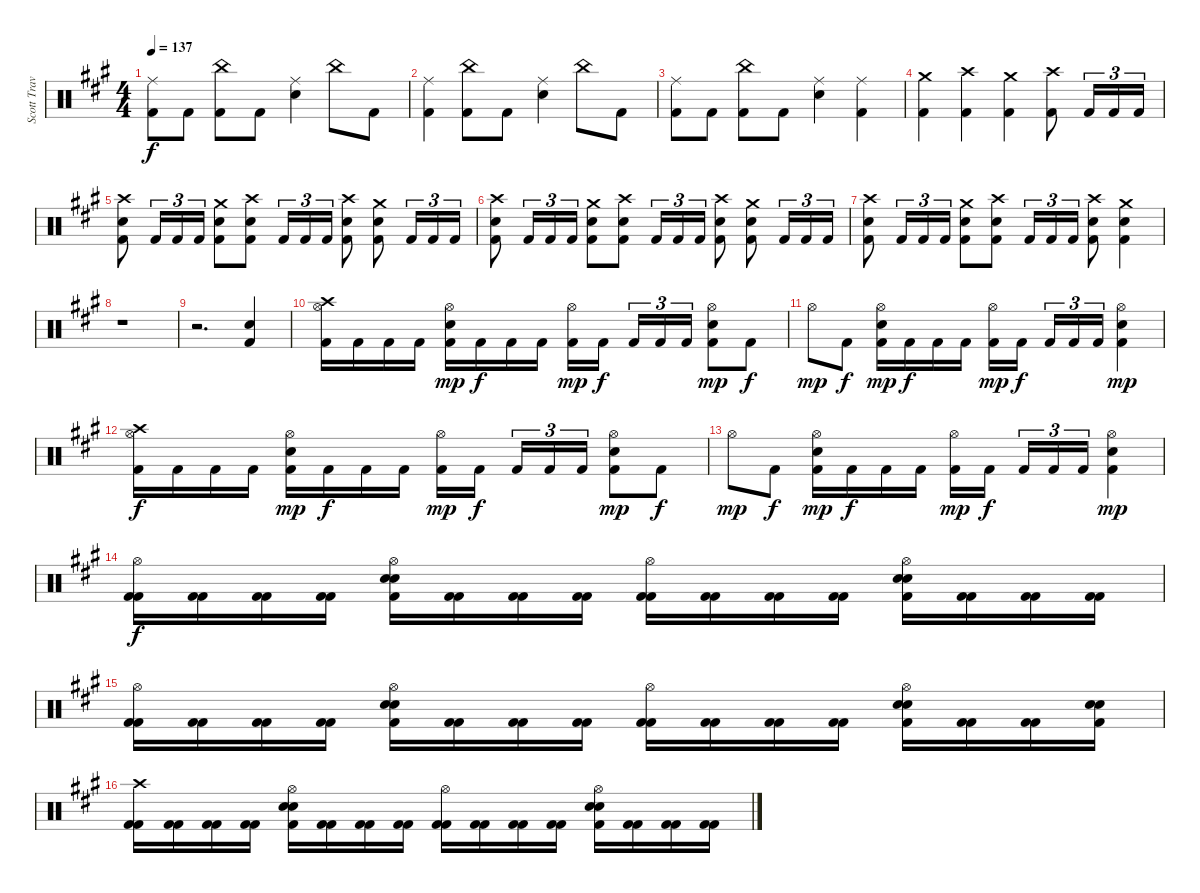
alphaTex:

\track ("Scott Travis" "Scott Trav") {instrument percussion}
\staff {score}
\articulation defaults
\ts (4 4)
\tempo 137
\clef neutral
\ks f#minor
("Ride (middle)" "Kick (hit) 2").8{dy f} "Kick (hit) 2".8 ("China (hit)" "Kick (hit) 2").8 "Kick (hit) 2".8 ("Ride (middle)" "Snare (hit) 2").4 "China (hit)".8 "Kick (hit) 2".8 |
("Ride (middle)" "Kick (hit) 2").4 ("China (hit)" "Kick (hit) 2").8 "Kick (hit) 2".8 ("Ride (middle)" "Snare (hit) 2").4 "China (hit)".8 "Kick (hit) 2".8 |
("Ride (middle)" "Kick (hit) 2").8 "Kick (hit) 2".8 ("China (hit)" "Kick (hit) 2").8 "Kick (hit) 2".8 ("Ride (middle)" "Snare (hit) 2").4 ("Ride (middle)" "Kick (hit) 2").4 |
("Crash medium (hit)" "Kick (hit) 2").4 ("Crash high (hit)" "Kick (hit) 2").4 ("Crash medium (hit)" "Kick (hit) 2").4 ("Crash high (hit)" "Kick (hit) 2").8 "Kick (hit) 2".16{tu (3 2)} "Kick (hit) 2".16{tu (3 2)} "Kick (hit) 2".16{tu (3 2)} |
("Crash high (hit)" "Snare (hit) 2" "Kick (hit) 2").8 "Kick (hit) 2".16{tu (3 2)} "Kick (hit) 2".16{tu (3 2)} "Kick (hit) 2".16{tu (3 2)} ("Crash medium (hit)" "Snare (hit) 2" "Kick (hit) 2").8 ("Crash high (hit)" "Snare (hit) 2" "Kick (hit) 2").8 "Kick (hit) 2".16{tu (3 2)} "Kick (hit) 2".16{tu (3 2)} "Kick (hit) 2".16{tu (3 2)} ("Crash high (hit)" "Snare (hit) 2" "Kick (hit) 2").8 ("Crash medium (hit)" "Snare (hit) 2" "Kick (hit) 2").8 "Kick (hit) 2".16{tu (3 2)} "Kick (hit) 2".16{tu (3 2)} "Kick (hit) 2".16{tu (3 2)} |
("Crash high (hit)" "Snare (hit) 2" "Kick (hit) 2").8 "Kick (hit) 2".16{tu (3 2)} "Kick (hit) 2".16{tu (3 2)} "Kick (hit) 2".16{tu (3 2)} ("Crash medium (hit)" "Snare (hit) 2" "Kick (hit) 2").8 ("Crash high (hit)" "Snare (hit) 2" "Kick (hit) 2").8 "Kick (hit) 2".16{tu (3 2)} "Kick (hit) 2".16{tu (3 2)} "Kick (hit) 2".16{tu (3 2)} ("Crash high (hit)" "Snare (hit) 2" "Kick (hit) 2").8 ("Crash medium (hit)" "Snare (hit) 2" "Kick (hit) 2").8 "Kick (hit) 2".16{tu (3 2)} "Kick (hit) 2".16{tu (3 2)} "Kick (hit) 2".16{tu (3 2)} |
("Crash high (hit)" "Snare (hit) 2" "Kick (hit) 2").8 "Kick (hit) 2".16{tu (3 2)} "Kick (hit) 2".16{tu (3 2)} "Kick (hit) 2".16{tu (3 2)} ("Crash medium (hit)" "Snare (hit) 2" "Kick (hit) 2").8 ("Crash high (hit)" "Snare (hit) 2" "Kick (hit) 2").8 "Kick (hit) 2".16{tu (3 2)} "Kick (hit) 2".16{tu (3 2)} "Kick (hit) 2".16{tu (3 2)} ("Crash high (hit)" "Snare (hit) 2" "Kick (hit) 2").8 ("Crash medium (hit)" "Snare (hit) 2" "Kick (hit) 2").4 |
r.1 |
r.2{d} ("Snare (hit) 2" "Kick (hit) 2").4 |
("Hi-Hat (open)" "Crash high (hit)" "Kick (hit) 2").16 "Kick (hit) 2".16 "Kick (hit) 2".16 "Kick (hit) 2".16 ("Hi-Hat (open)" "Snare (hit) 2" "Kick (hit) 2").16{dy mp} "Kick (hit) 2".16{dy f} "Kick (hit) 2".16 "Kick (hit) 2".16 ("Hi-Hat (open)" "Kick (hit) 2").16{dy mp} "Kick (hit) 2".16{dy f} "Kick (hit) 2".16{tu (3 2)} "Kick (hit) 2".16{tu (3 2)} "Kick (hit) 2".16{tu (3 2)} ("Hi-Hat (open)" "Snare (hit) 2" "Kick (hit) 2").8{dy mp} "Kick (hit) 2".8{dy f} |
"Hi-Hat (open)".8{dy mp} "Kick (hit) 2".8{dy f} ("Hi-Hat (open)" "Snare (hit) 2" "Kick (hit) 2").16{dy mp} "Kick (hit) 2".16{dy f} "Kick (hit) 2".16 "Kick (hit) 2".16 ("Hi-Hat (open)" "Kick (hit) 2").16{dy mp} "Kick (hit) 2".16{dy f} "Kick (hit) 2".16{tu (3 2)} "Kick (hit) 2".16{tu (3 2)} "Kick (hit) 2".16{tu (3 2)} ("Hi-Hat (open)" "Snare (hit) 2" "Kick (hit) 2").4{dy mp} |
("Hi-Hat (open)" "Crash high (hit)" "Kick (hit) 2").16{dy f} "Kick (hit) 2".16 "Kick (hit) 2".16 "Kick (hit) 2".16 ("Hi-Hat (open)" "Snare (hit) 2" "Kick (hit) 2").16{dy mp} "Kick (hit) 2".16{dy f} "Kick (hit) 2".16 "Kick (hit) 2".16 ("Hi-Hat (open)" "Kick (hit) 2").16{dy mp} "Kick (hit) 2".16{dy f} "Kick (hit) 2".16{tu (3 2)} "Kick (hit) 2".16{tu (3 2)} "Kick (hit) 2".16{tu (3 2)} ("Hi-Hat (open)" "Snare (hit) 2" "Kick (hit) 2").8{dy mp} "Kick (hit) 2".8{dy f} |
"Hi-Hat (open)".8{dy mp} "Kick (hit) 2".8{dy f} ("Hi-Hat (open)" "Snare (hit) 2" "Kick (hit) 2").16{dy mp} "Kick (hit) 2".16{dy f} "Kick (hit) 2".16 "Kick (hit) 2".16 ("Hi-Hat (open)" "Kick (hit) 2").16{dy mp} "Kick (hit) 2".16{dy f} "Kick (hit) 2".16{tu (3 2)} "Kick (hit) 2".16{tu (3 2)} "Kick (hit) 2".16{tu (3 2)} ("Hi-Hat (open)" "Snare (hit) 2" "Kick (hit) 2").4{dy mp} |
("Hi-Hat (open)" "Kick (hit) 2" "Kick (hit) 2").16{dy f} ("Kick (hit) 2" "Kick (hit) 2").16 ("Kick (hit) 2" "Kick (hit) 2").16 ("Kick (hit) 2" "Kick (hit) 2").16 ("Hi-Hat (open)" "Snare (hit) 2" "Snare (hit) 2" "Kick (hit) 2").16 ("Kick (hit) 2" "Kick (hit) 2").16 ("Kick (hit) 2" "Kick (hit) 2").16 ("Kick (hit) 2" "Kick (hit) 2").16 ("Hi-Hat (open)" "Kick (hit) 2" "Kick (hit) 2").16 ("Kick (hit) 2" "Kick (hit) 2").16 ("Kick (hit) 2" "Kick (hit) 2").16 ("Kick (hit) 2" "Kick (hit) 2").16 ("Hi-Hat (open)" "Snare (hit) 2" "Snare (hit) 2" "Kick (hit) 2").16 ("Kick (hit) 2" "Kick (hit) 2").16 ("Kick (hit) 2" "Kick (hit) 2").16 ("Kick (hit) 2" "Kick (hit) 2").16 |
("Hi-Hat (open)" "Kick (hit) 2" "Kick (hit) 2").16 ("Kick (hit) 2" "Kick (hit) 2").16 ("Kick (hit) 2" "Kick (hit) 2").16 ("Kick (hit) 2" "Kick (hit) 2").16 ("Hi-Hat (open)" "Snare (hit) 2" "Snare (hit) 2" "Kick (hit) 2").16 ("Kick (hit) 2" "Kick (hit) 2").16 ("Kick (hit) 2" "Kick (hit) 2").16 ("Kick (hit) 2" "Kick (hit) 2").16 ("Hi-Hat (open)" "Kick (hit) 2" "Kick (hit) 2").16 ("Kick (hit) 2" "Kick (hit) 2").16 ("Kick (hit) 2" "Kick (hit) 2").16 ("Kick (hit) 2" "Kick (hit) 2").16 ("Hi-Hat (open)" "Snare (hit) 2" "Snare (hit) 2" "Kick (hit) 2").16 ("Kick (hit) 2" "Kick (hit) 2").16 ("Kick (hit) 2" "Kick (hit) 2").16 ("Snare (hit) 2" "Snare (hit) 2" "Kick (hit) 2").16 |
("Crash high (hit)" "Kick (hit) 2" "Kick (hit) 2").16 ("Kick (hit) 2" "Kick (hit) 2").16 ("Kick (hit) 2" "Kick (hit) 2").16 ("Kick (hit) 2" "Kick (hit) 2").16 ("Hi-Hat (open)" "Snare (hit) 2" "Snare (hit) 2" "Kick (hit) 2").16 ("Kick (hit) 2" "Kick (hit) 2").16 ("Kick (hit) 2" "Kick (hit) 2").16 ("Kick (hit) 2" "Kick (hit) 2").16 ("Hi-Hat (open)" "Kick (hit) 2" "Kick (hit) 2").16 ("Kick (hit) 2" "Kick (hit) 2").16 ("Kick (hit) 2" "Kick (hit) 2").16 ("Kick (hit) 2" "Kick (hit) 2").16 ("Hi-Hat (open)" "Snare (hit) 2" "Snare (hit) 2" "Kick (hit) 2").16 ("Kick (hit) 2" "Kick (hit) 2").16 ("Kick (hit) 2" "Kick (hit) 2").16 ("Kick (hit) 2" "Kick (hit) 2").16
